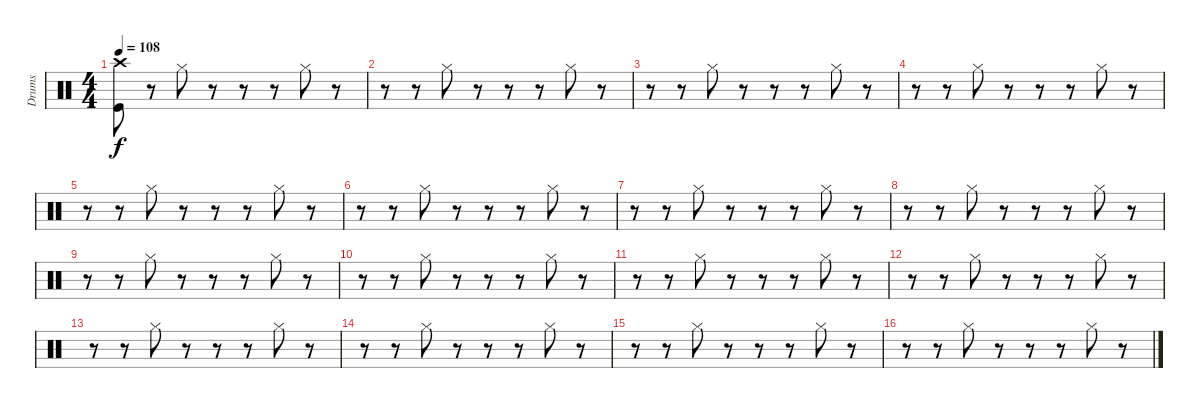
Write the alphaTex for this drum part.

\track ("Drums" "Drums") {instrument percussion}
\staff {score}
\articulation defaults
\ts (4 4)
\tempo 108
\clef neutral
\ks c
("Crash high (hit)" "Kick (hit)").8{dy f} r.8 "Hi-Hat (closed)".8 r.8 r.8 r.8 "Hi-Hat (closed)".8 r.8 |
r.8 r.8 "Hi-Hat (closed)".8 r.8 r.8 r.8 "Hi-Hat (closed)".8 r.8 |
r.8 r.8 "Hi-Hat (closed)".8 r.8 r.8 r.8 "Hi-Hat (closed)".8 r.8 |
r.8 r.8 "Hi-Hat (closed)".8 r.8 r.8 r.8 "Hi-Hat (closed)".8 r.8 |
r.8 r.8 "Hi-Hat (closed)".8 r.8 r.8 r.8 "Hi-Hat (closed)".8 r.8 |
r.8 r.8 "Hi-Hat (closed)".8 r.8 r.8 r.8 "Hi-Hat (closed)".8 r.8 |
r.8 r.8 "Hi-Hat (closed)".8 r.8 r.8 r.8 "Hi-Hat (closed)".8 r.8 |
r.8 r.8 "Hi-Hat (closed)".8 r.8 r.8 r.8 "Hi-Hat (closed)".8 r.8 |
r.8 r.8 "Hi-Hat (closed)".8 r.8 r.8 r.8 "Hi-Hat (closed)".8 r.8 |
r.8 r.8 "Hi-Hat (closed)".8 r.8 r.8 r.8 "Hi-Hat (closed)".8 r.8 |
r.8 r.8 "Hi-Hat (closed)".8 r.8 r.8 r.8 "Hi-Hat (closed)".8 r.8 |
r.8 r.8 "Hi-Hat (closed)".8 r.8 r.8 r.8 "Hi-Hat (closed)".8 r.8 |
r.8 r.8 "Hi-Hat (closed)".8 r.8 r.8 r.8 "Hi-Hat (closed)".8 r.8 |
r.8 r.8 "Hi-Hat (closed)".8 r.8 r.8 r.8 "Hi-Hat (closed)".8 r.8 |
r.8 r.8 "Hi-Hat (closed)".8 r.8 r.8 r.8 "Hi-Hat (closed)".8 r.8 |
r.8 r.8 "Hi-Hat (closed)".8 r.8 r.8 r.8 "Hi-Hat (closed)".8 r.8
